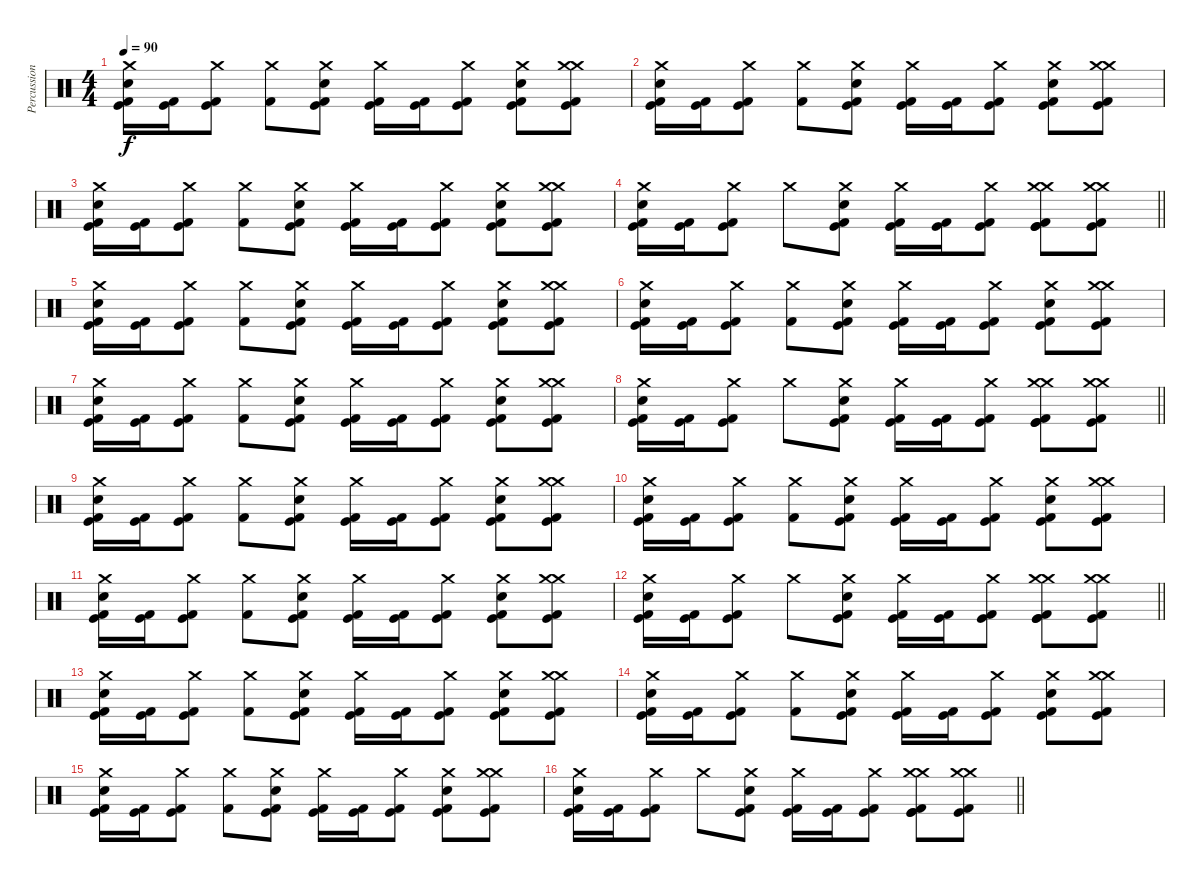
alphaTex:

\track ("Percussion" "Percussion") {instrument percussion}
\staff {score}
\articulation defaults
\ts (4 4)
\tempo 90
\clef neutral
\ks c
("Crash medium (hit)" "Snare (hit) 2" "Kick (hit)" "Kick (hit) 2").16{dy f} ("Kick (hit)" "Kick (hit) 2").16 ("Crash medium (hit)" "Kick (hit)" "Kick (hit) 2").8 ("Crash medium (hit)" "Kick (hit) 2").8 ("Crash medium (hit)" "Snare (hit) 2" "Kick (hit)" "Kick (hit) 2").8 ("Crash medium (hit)" "Kick (hit)" "Kick (hit) 2").16 ("Kick (hit)" "Kick (hit) 2").16 ("Crash medium (hit)" "Kick (hit)" "Kick (hit) 2").8 ("Crash medium (hit)" "Snare (hit) 2" "Kick (hit)" "Kick (hit) 2").8 ("Crash medium (hit)" "Crash medium (hit)" "Kick (hit)" "Kick (hit) 2").8 |
("Crash medium (hit)" "Snare (hit) 2" "Kick (hit)" "Kick (hit) 2").16 ("Kick (hit)" "Kick (hit) 2").16 ("Crash medium (hit)" "Kick (hit)" "Kick (hit) 2").8 ("Crash medium (hit)" "Kick (hit) 2").8 ("Crash medium (hit)" "Snare (hit) 2" "Kick (hit)" "Kick (hit) 2").8 ("Crash medium (hit)" "Kick (hit)" "Kick (hit) 2").16 ("Kick (hit)" "Kick (hit) 2").16 ("Crash medium (hit)" "Kick (hit)" "Kick (hit) 2").8 ("Crash medium (hit)" "Snare (hit) 2" "Kick (hit)" "Kick (hit) 2").8 ("Crash medium (hit)" "Crash medium (hit)" "Kick (hit)" "Kick (hit) 2").8 |
("Crash medium (hit)" "Snare (hit) 2" "Kick (hit)" "Kick (hit) 2").16 ("Kick (hit)" "Kick (hit) 2").16 ("Crash medium (hit)" "Kick (hit)" "Kick (hit) 2").8 ("Crash medium (hit)" "Kick (hit) 2").8 ("Crash medium (hit)" "Snare (hit) 2" "Kick (hit)" "Kick (hit) 2").8 ("Crash medium (hit)" "Kick (hit)" "Kick (hit) 2").16 ("Kick (hit)" "Kick (hit) 2").16 ("Crash medium (hit)" "Kick (hit)" "Kick (hit) 2").8 ("Crash medium (hit)" "Snare (hit) 2" "Kick (hit)" "Kick (hit) 2").8 ("Crash medium (hit)" "Crash medium (hit)" "Kick (hit)" "Kick (hit) 2").8 |
\barLineRight lightlight
("Crash medium (hit)" "Snare (hit) 2" "Kick (hit)" "Kick (hit) 2").16 ("Kick (hit)" "Kick (hit) 2").16 ("Crash medium (hit)" "Kick (hit)" "Kick (hit) 2").8 "Crash medium (hit)".8 ("Crash medium (hit)" "Snare (hit) 2" "Kick (hit)" "Kick (hit) 2").8 ("Crash medium (hit)" "Kick (hit)" "Kick (hit) 2").16 ("Kick (hit)" "Kick (hit) 2").16 ("Crash medium (hit)" "Kick (hit)" "Kick (hit) 2").8 ("Crash medium (hit)" "Crash medium (hit)" "Kick (hit)" "Kick (hit)" "Kick (hit) 2").8 ("Crash medium (hit)" "Crash medium (hit)" "Kick (hit)" "Kick (hit) 2").8 |
\section ("" "")
("Crash medium (hit)" "Snare (hit) 2" "Kick (hit)" "Kick (hit) 2").16 ("Kick (hit)" "Kick (hit) 2").16 ("Crash medium (hit)" "Kick (hit)" "Kick (hit) 2").8 ("Crash medium (hit)" "Kick (hit) 2").8 ("Crash medium (hit)" "Snare (hit) 2" "Kick (hit)" "Kick (hit) 2").8 ("Crash medium (hit)" "Kick (hit)" "Kick (hit) 2").16 ("Kick (hit)" "Kick (hit) 2").16 ("Crash medium (hit)" "Kick (hit)" "Kick (hit) 2").8 ("Crash medium (hit)" "Snare (hit) 2" "Kick (hit)" "Kick (hit) 2").8 ("Crash medium (hit)" "Crash medium (hit)" "Kick (hit)" "Kick (hit) 2").8 |
("Crash medium (hit)" "Snare (hit) 2" "Kick (hit)" "Kick (hit) 2").16 ("Kick (hit)" "Kick (hit) 2").16 ("Crash medium (hit)" "Kick (hit)" "Kick (hit) 2").8 ("Crash medium (hit)" "Kick (hit) 2").8 ("Crash medium (hit)" "Snare (hit) 2" "Kick (hit)" "Kick (hit) 2").8 ("Crash medium (hit)" "Kick (hit)" "Kick (hit) 2").16 ("Kick (hit)" "Kick (hit) 2").16 ("Crash medium (hit)" "Kick (hit)" "Kick (hit) 2").8 ("Crash medium (hit)" "Snare (hit) 2" "Kick (hit)" "Kick (hit) 2").8 ("Crash medium (hit)" "Crash medium (hit)" "Kick (hit)" "Kick (hit) 2").8 |
("Crash medium (hit)" "Snare (hit) 2" "Kick (hit)" "Kick (hit) 2").16 ("Kick (hit)" "Kick (hit) 2").16 ("Crash medium (hit)" "Kick (hit)" "Kick (hit) 2").8 ("Crash medium (hit)" "Kick (hit) 2").8 ("Crash medium (hit)" "Snare (hit) 2" "Kick (hit)" "Kick (hit) 2").8 ("Crash medium (hit)" "Kick (hit)" "Kick (hit) 2").16 ("Kick (hit)" "Kick (hit) 2").16 ("Crash medium (hit)" "Kick (hit)" "Kick (hit) 2").8 ("Crash medium (hit)" "Snare (hit) 2" "Kick (hit)" "Kick (hit) 2").8 ("Crash medium (hit)" "Crash medium (hit)" "Kick (hit)" "Kick (hit) 2").8 |
\barLineRight lightlight
("Crash medium (hit)" "Snare (hit) 2" "Kick (hit)" "Kick (hit) 2").16 ("Kick (hit)" "Kick (hit) 2").16 ("Crash medium (hit)" "Kick (hit)" "Kick (hit) 2").8 "Crash medium (hit)".8 ("Crash medium (hit)" "Snare (hit) 2" "Kick (hit)" "Kick (hit) 2").8 ("Crash medium (hit)" "Kick (hit)" "Kick (hit) 2").16 ("Kick (hit)" "Kick (hit) 2").16 ("Crash medium (hit)" "Kick (hit)" "Kick (hit) 2").8 ("Crash medium (hit)" "Crash medium (hit)" "Kick (hit)" "Kick (hit)" "Kick (hit) 2").8 ("Crash medium (hit)" "Crash medium (hit)" "Kick (hit)" "Kick (hit) 2").8 |
\section ("" "")
("Crash medium (hit)" "Snare (hit) 2" "Kick (hit)" "Kick (hit) 2").16 ("Kick (hit)" "Kick (hit) 2").16 ("Crash medium (hit)" "Kick (hit)" "Kick (hit) 2").8 ("Crash medium (hit)" "Kick (hit) 2").8 ("Crash medium (hit)" "Snare (hit) 2" "Kick (hit)" "Kick (hit) 2").8 ("Crash medium (hit)" "Kick (hit)" "Kick (hit) 2").16 ("Kick (hit)" "Kick (hit) 2").16 ("Crash medium (hit)" "Kick (hit)" "Kick (hit) 2").8 ("Crash medium (hit)" "Snare (hit) 2" "Kick (hit)" "Kick (hit) 2").8 ("Crash medium (hit)" "Crash medium (hit)" "Kick (hit)" "Kick (hit) 2").8 |
("Crash medium (hit)" "Snare (hit) 2" "Kick (hit)" "Kick (hit) 2").16 ("Kick (hit)" "Kick (hit) 2").16 ("Crash medium (hit)" "Kick (hit)" "Kick (hit) 2").8 ("Crash medium (hit)" "Kick (hit) 2").8 ("Crash medium (hit)" "Snare (hit) 2" "Kick (hit)" "Kick (hit) 2").8 ("Crash medium (hit)" "Kick (hit)" "Kick (hit) 2").16 ("Kick (hit)" "Kick (hit) 2").16 ("Crash medium (hit)" "Kick (hit)" "Kick (hit) 2").8 ("Crash medium (hit)" "Snare (hit) 2" "Kick (hit)" "Kick (hit) 2").8 ("Crash medium (hit)" "Crash medium (hit)" "Kick (hit)" "Kick (hit) 2").8 |
("Crash medium (hit)" "Snare (hit) 2" "Kick (hit)" "Kick (hit) 2").16 ("Kick (hit)" "Kick (hit) 2").16 ("Crash medium (hit)" "Kick (hit)" "Kick (hit) 2").8 ("Crash medium (hit)" "Kick (hit) 2").8 ("Crash medium (hit)" "Snare (hit) 2" "Kick (hit)" "Kick (hit) 2").8 ("Crash medium (hit)" "Kick (hit)" "Kick (hit) 2").16 ("Kick (hit)" "Kick (hit) 2").16 ("Crash medium (hit)" "Kick (hit)" "Kick (hit) 2").8 ("Crash medium (hit)" "Snare (hit) 2" "Kick (hit)" "Kick (hit) 2").8 ("Crash medium (hit)" "Crash medium (hit)" "Kick (hit)" "Kick (hit) 2").8 |
\barLineRight lightlight
("Crash medium (hit)" "Snare (hit) 2" "Kick (hit)" "Kick (hit) 2").16 ("Kick (hit)" "Kick (hit) 2").16 ("Crash medium (hit)" "Kick (hit)" "Kick (hit) 2").8 "Crash medium (hit)".8 ("Crash medium (hit)" "Snare (hit) 2" "Kick (hit)" "Kick (hit) 2").8 ("Crash medium (hit)" "Kick (hit)" "Kick (hit) 2").16 ("Kick (hit)" "Kick (hit) 2").16 ("Crash medium (hit)" "Kick (hit)" "Kick (hit) 2").8 ("Crash medium (hit)" "Crash medium (hit)" "Kick (hit)" "Kick (hit)" "Kick (hit) 2").8 ("Crash medium (hit)" "Crash medium (hit)" "Kick (hit)" "Kick (hit) 2").8 |
("Crash medium (hit)" "Snare (hit) 2" "Kick (hit)" "Kick (hit) 2").16 ("Kick (hit)" "Kick (hit) 2").16 ("Crash medium (hit)" "Kick (hit)" "Kick (hit) 2").8 ("Crash medium (hit)" "Kick (hit) 2").8 ("Crash medium (hit)" "Snare (hit) 2" "Kick (hit)" "Kick (hit) 2").8 ("Crash medium (hit)" "Kick (hit)" "Kick (hit) 2").16 ("Kick (hit)" "Kick (hit) 2").16 ("Crash medium (hit)" "Kick (hit)" "Kick (hit) 2").8 ("Crash medium (hit)" "Snare (hit) 2" "Kick (hit)" "Kick (hit) 2").8 ("Crash medium (hit)" "Crash medium (hit)" "Kick (hit)" "Kick (hit) 2").8 |
("Crash medium (hit)" "Snare (hit) 2" "Kick (hit)" "Kick (hit) 2").16 ("Kick (hit)" "Kick (hit) 2").16 ("Crash medium (hit)" "Kick (hit)" "Kick (hit) 2").8 ("Crash medium (hit)" "Kick (hit) 2").8 ("Crash medium (hit)" "Snare (hit) 2" "Kick (hit)" "Kick (hit) 2").8 ("Crash medium (hit)" "Kick (hit)" "Kick (hit) 2").16 ("Kick (hit)" "Kick (hit) 2").16 ("Crash medium (hit)" "Kick (hit)" "Kick (hit) 2").8 ("Crash medium (hit)" "Snare (hit) 2" "Kick (hit)" "Kick (hit) 2").8 ("Crash medium (hit)" "Crash medium (hit)" "Kick (hit)" "Kick (hit) 2").8 |
("Crash medium (hit)" "Snare (hit) 2" "Kick (hit)" "Kick (hit) 2").16 ("Kick (hit)" "Kick (hit) 2").16 ("Crash medium (hit)" "Kick (hit)" "Kick (hit) 2").8 ("Crash medium (hit)" "Kick (hit) 2").8 ("Crash medium (hit)" "Snare (hit) 2" "Kick (hit)" "Kick (hit) 2").8 ("Crash medium (hit)" "Kick (hit)" "Kick (hit) 2").16 ("Kick (hit)" "Kick (hit) 2").16 ("Crash medium (hit)" "Kick (hit)" "Kick (hit) 2").8 ("Crash medium (hit)" "Snare (hit) 2" "Kick (hit)" "Kick (hit) 2").8 ("Crash medium (hit)" "Crash medium (hit)" "Kick (hit)" "Kick (hit) 2").8 |
\barLineRight lightlight
("Crash medium (hit)" "Snare (hit) 2" "Kick (hit)" "Kick (hit) 2").16 ("Kick (hit)" "Kick (hit) 2").16 ("Crash medium (hit)" "Kick (hit)" "Kick (hit) 2").8 "Crash medium (hit)".8 ("Crash medium (hit)" "Snare (hit) 2" "Kick (hit)" "Kick (hit) 2").8 ("Crash medium (hit)" "Kick (hit)" "Kick (hit) 2").16 ("Kick (hit)" "Kick (hit) 2").16 ("Crash medium (hit)" "Kick (hit)" "Kick (hit) 2").8 ("Crash medium (hit)" "Crash medium (hit)" "Kick (hit)" "Kick (hit)" "Kick (hit) 2").8 ("Crash medium (hit)" "Crash medium (hit)" "Kick (hit)" "Kick (hit) 2").8
